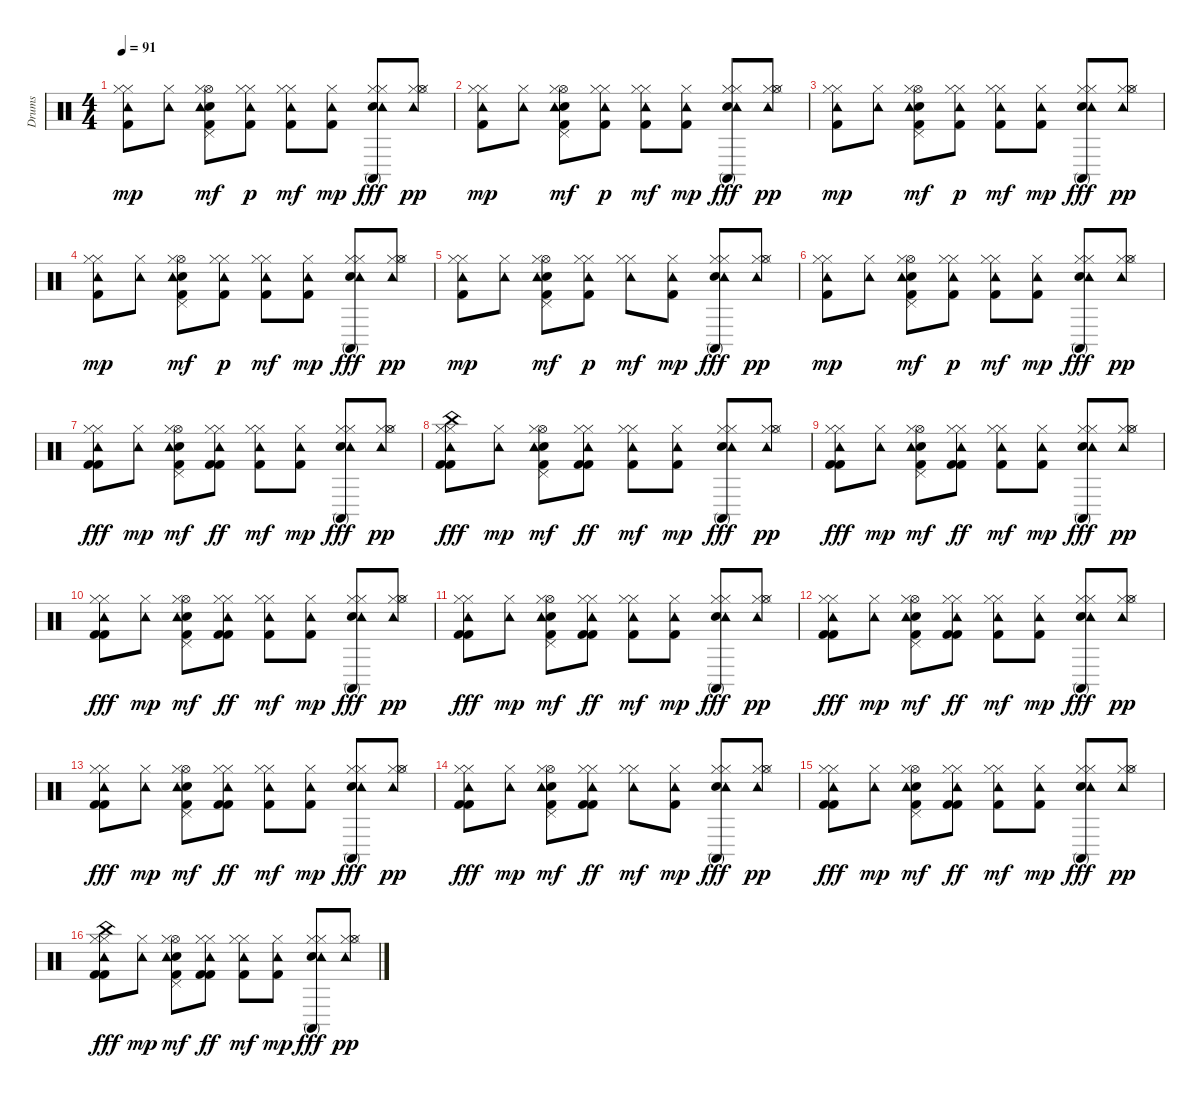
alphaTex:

\track ("Drums" "Drums") {instrument percussion}
\staff {score}
\articulation defaults
\ts (4 4)
\tempo 91
\clef neutral
\ks c
("Hi-Hat (closed)" "Kick (hit) 2" "Hi-Hat (closed)" "Tambourine (hit)").8{dy mp} ("Hi-Hat (closed)" "Tambourine (hit)").8 ("Kick (hit) 2" "Pedal Hi-Hat (hit)" "Hi-Hat (open)" "Snare (hit) 2" "Hi-Hat (closed)" "Tambourine (hit)").8{dy mf} ("Hi-Hat (closed)" "Kick (hit) 2" "Hi-Hat (closed)" "Tambourine (hit)").8{dy p} ("Hi-Hat (closed)" "Kick (hit) 2" "Hi-Hat (closed)" "Tambourine (hit)").8{dy mf} ("Kick (hit) 2" "Hi-Hat (closed)" "Tambourine (hit)").8{dy mp} ("Hi-Hat (closed)" "Snare (hit) 2" "Hi-Hat (closed)" "Tambourine (hit)" "Conga high (mute)").8{dy fff} ("Hi-Hat (closed)" "Hi-Hat (closed)" "Hi-Hat (open)" "Tambourine (hit)").8{dy pp} |
("Hi-Hat (closed)" "Kick (hit) 2" "Hi-Hat (closed)" "Tambourine (hit)").8{dy mp} ("Hi-Hat (closed)" "Tambourine (hit)").8 ("Kick (hit) 2" "Pedal Hi-Hat (hit)" "Hi-Hat (open)" "Snare (hit) 2" "Hi-Hat (closed)" "Tambourine (hit)").8{dy mf} ("Hi-Hat (closed)" "Kick (hit) 2" "Hi-Hat (closed)" "Tambourine (hit)").8{dy p} ("Hi-Hat (closed)" "Kick (hit) 2" "Hi-Hat (closed)" "Tambourine (hit)").8{dy mf} ("Kick (hit) 2" "Hi-Hat (closed)" "Tambourine (hit)").8{dy mp} ("Hi-Hat (closed)" "Snare (hit) 2" "Hi-Hat (closed)" "Tambourine (hit)" "Conga high (mute)").8{dy fff} ("Hi-Hat (closed)" "Hi-Hat (closed)" "Hi-Hat (open)" "Tambourine (hit)").8{dy pp} |
("Hi-Hat (closed)" "Kick (hit) 2" "Hi-Hat (closed)" "Tambourine (hit)").8{dy mp} ("Hi-Hat (closed)" "Tambourine (hit)").8 ("Kick (hit) 2" "Pedal Hi-Hat (hit)" "Hi-Hat (open)" "Snare (hit) 2" "Hi-Hat (closed)" "Tambourine (hit)").8{dy mf} ("Hi-Hat (closed)" "Kick (hit) 2" "Hi-Hat (closed)" "Tambourine (hit)").8{dy p} ("Hi-Hat (closed)" "Kick (hit) 2" "Hi-Hat (closed)" "Tambourine (hit)").8{dy mf} ("Kick (hit) 2" "Hi-Hat (closed)" "Tambourine (hit)").8{dy mp} ("Hi-Hat (closed)" "Snare (hit) 2" "Hi-Hat (closed)" "Tambourine (hit)" "Conga high (mute)").8{dy fff} ("Hi-Hat (closed)" "Hi-Hat (closed)" "Hi-Hat (open)" "Tambourine (hit)").8{dy pp} |
("Hi-Hat (closed)" "Kick (hit) 2" "Hi-Hat (closed)" "Tambourine (hit)").8{dy mp} ("Hi-Hat (closed)" "Tambourine (hit)").8 ("Kick (hit) 2" "Pedal Hi-Hat (hit)" "Hi-Hat (open)" "Snare (hit) 2" "Hi-Hat (closed)" "Tambourine (hit)").8{dy mf} ("Hi-Hat (closed)" "Kick (hit) 2" "Hi-Hat (closed)" "Tambourine (hit)").8{dy p} ("Hi-Hat (closed)" "Kick (hit) 2" "Hi-Hat (closed)" "Tambourine (hit)").8{dy mf} ("Kick (hit) 2" "Hi-Hat (closed)" "Tambourine (hit)").8{dy mp} ("Hi-Hat (closed)" "Snare (hit) 2" "Hi-Hat (closed)" "Tambourine (hit)" "Conga high (mute)").8{dy fff} ("Hi-Hat (closed)" "Hi-Hat (closed)" "Hi-Hat (open)" "Tambourine (hit)").8{dy pp} |
("Hi-Hat (closed)" "Kick (hit) 2" "Hi-Hat (closed)" "Tambourine (hit)").8{dy mp} ("Hi-Hat (closed)" "Tambourine (hit)").8 ("Kick (hit) 2" "Pedal Hi-Hat (hit)" "Hi-Hat (open)" "Snare (hit) 2" "Hi-Hat (closed)" "Tambourine (hit)").8{dy mf} ("Hi-Hat (closed)" "Kick (hit) 2" "Hi-Hat (closed)" "Tambourine (hit)").8{dy p} ("Hi-Hat (closed)" "Hi-Hat (closed)" "Tambourine (hit)").8{dy mf} ("Kick (hit) 2" "Hi-Hat (closed)" "Tambourine (hit)").8{dy mp} ("Hi-Hat (closed)" "Snare (hit) 2" "Hi-Hat (closed)" "Tambourine (hit)" "Conga high (mute)").8{dy fff} ("Hi-Hat (closed)" "Hi-Hat (closed)" "Hi-Hat (open)" "Tambourine (hit)").8{dy pp} |
("Hi-Hat (closed)" "Kick (hit) 2" "Hi-Hat (closed)" "Tambourine (hit)").8{dy mp} ("Hi-Hat (closed)" "Tambourine (hit)").8 ("Kick (hit) 2" "Pedal Hi-Hat (hit)" "Hi-Hat (open)" "Snare (hit) 2" "Hi-Hat (closed)" "Tambourine (hit)").8{dy mf} ("Hi-Hat (closed)" "Kick (hit) 2" "Hi-Hat (closed)" "Tambourine (hit)").8{dy p} ("Hi-Hat (closed)" "Kick (hit) 2" "Hi-Hat (closed)" "Tambourine (hit)").8{dy mf} ("Kick (hit) 2" "Hi-Hat (closed)" "Tambourine (hit)").8{dy mp} ("Hi-Hat (closed)" "Snare (hit) 2" "Hi-Hat (closed)" "Tambourine (hit)" "Conga high (mute)").8{dy fff} ("Hi-Hat (closed)" "Hi-Hat (closed)" "Hi-Hat (open)" "Tambourine (hit)").8{dy pp} |
("Hi-Hat (closed)" "Kick (hit) 2" "Hi-Hat (closed)" "Tambourine (hit)" "Kick (hit) 2").8{dy fff} ("Hi-Hat (closed)" "Tambourine (hit)").8{dy mp} ("Kick (hit) 2" "Pedal Hi-Hat (hit)" "Hi-Hat (open)" "Snare (hit) 2" "Hi-Hat (closed)" "Tambourine (hit)").8{dy mf} ("Hi-Hat (closed)" "Kick (hit) 2" "Hi-Hat (closed)" "Tambourine (hit)" "Kick (hit) 2").8{dy ff} ("Hi-Hat (closed)" "Kick (hit) 2" "Hi-Hat (closed)" "Tambourine (hit)").8{dy mf} ("Kick (hit) 2" "Hi-Hat (closed)" "Tambourine (hit)").8{dy mp} ("Hi-Hat (closed)" "Snare (hit) 2" "Hi-Hat (closed)" "Tambourine (hit)" "Conga high (mute)").8{dy fff} ("Hi-Hat (closed)" "Hi-Hat (closed)" "Hi-Hat (open)" "Tambourine (hit)").8{dy pp} |
("Hi-Hat (closed)" "Kick (hit) 2" "Hi-Hat (closed)" "China (hit)" "Tambourine (hit)" "Kick (hit) 2").8{dy fff} ("Hi-Hat (closed)" "Tambourine (hit)").8{dy mp} ("Kick (hit) 2" "Pedal Hi-Hat (hit)" "Hi-Hat (open)" "Snare (hit) 2" "Hi-Hat (closed)" "Tambourine (hit)").8{dy mf} ("Hi-Hat (closed)" "Kick (hit) 2" "Hi-Hat (closed)" "Tambourine (hit)" "Kick (hit) 2").8{dy ff} ("Hi-Hat (closed)" "Kick (hit) 2" "Hi-Hat (closed)" "Tambourine (hit)").8{dy mf} ("Kick (hit) 2" "Hi-Hat (closed)" "Tambourine (hit)").8{dy mp} ("Hi-Hat (closed)" "Snare (hit) 2" "Hi-Hat (closed)" "Tambourine (hit)" "Conga high (mute)").8{dy fff} ("Hi-Hat (closed)" "Hi-Hat (closed)" "Hi-Hat (open)" "Tambourine (hit)").8{dy pp} |
("Hi-Hat (closed)" "Kick (hit) 2" "Hi-Hat (closed)" "Tambourine (hit)" "Kick (hit) 2").8{dy fff} ("Hi-Hat (closed)" "Tambourine (hit)").8{dy mp} ("Kick (hit) 2" "Pedal Hi-Hat (hit)" "Hi-Hat (open)" "Snare (hit) 2" "Hi-Hat (closed)" "Tambourine (hit)").8{dy mf} ("Hi-Hat (closed)" "Kick (hit) 2" "Hi-Hat (closed)" "Tambourine (hit)" "Kick (hit) 2").8{dy ff} ("Hi-Hat (closed)" "Kick (hit) 2" "Hi-Hat (closed)" "Tambourine (hit)").8{dy mf} ("Kick (hit) 2" "Hi-Hat (closed)" "Tambourine (hit)").8{dy mp} ("Hi-Hat (closed)" "Snare (hit) 2" "Hi-Hat (closed)" "Tambourine (hit)" "Conga high (mute)").8{dy fff} ("Hi-Hat (closed)" "Hi-Hat (closed)" "Hi-Hat (open)" "Tambourine (hit)").8{dy pp} |
("Hi-Hat (closed)" "Kick (hit) 2" "Hi-Hat (closed)" "Tambourine (hit)" "Kick (hit) 2").8{dy fff} ("Hi-Hat (closed)" "Tambourine (hit)").8{dy mp} ("Kick (hit) 2" "Pedal Hi-Hat (hit)" "Hi-Hat (open)" "Snare (hit) 2" "Hi-Hat (closed)" "Tambourine (hit)").8{dy mf} ("Hi-Hat (closed)" "Kick (hit) 2" "Hi-Hat (closed)" "Tambourine (hit)" "Kick (hit) 2").8{dy ff} ("Hi-Hat (closed)" "Kick (hit) 2" "Hi-Hat (closed)" "Tambourine (hit)").8{dy mf} ("Kick (hit) 2" "Hi-Hat (closed)" "Tambourine (hit)").8{dy mp} ("Hi-Hat (closed)" "Snare (hit) 2" "Hi-Hat (closed)" "Tambourine (hit)" "Conga high (mute)").8{dy fff} ("Hi-Hat (closed)" "Hi-Hat (closed)" "Hi-Hat (open)" "Tambourine (hit)").8{dy pp} |
("Hi-Hat (closed)" "Kick (hit) 2" "Hi-Hat (closed)" "Tambourine (hit)" "Kick (hit) 2").8{dy fff} ("Hi-Hat (closed)" "Tambourine (hit)").8{dy mp} ("Kick (hit) 2" "Pedal Hi-Hat (hit)" "Hi-Hat (open)" "Snare (hit) 2" "Hi-Hat (closed)" "Tambourine (hit)").8{dy mf} ("Hi-Hat (closed)" "Kick (hit) 2" "Hi-Hat (closed)" "Tambourine (hit)" "Kick (hit) 2").8{dy ff} ("Hi-Hat (closed)" "Kick (hit) 2" "Hi-Hat (closed)" "Tambourine (hit)").8{dy mf} ("Kick (hit) 2" "Hi-Hat (closed)" "Tambourine (hit)").8{dy mp} ("Hi-Hat (closed)" "Snare (hit) 2" "Hi-Hat (closed)" "Tambourine (hit)" "Conga high (mute)").8{dy fff} ("Hi-Hat (closed)" "Hi-Hat (closed)" "Hi-Hat (open)" "Tambourine (hit)").8{dy pp} |
("Hi-Hat (closed)" "Kick (hit) 2" "Hi-Hat (closed)" "Tambourine (hit)" "Kick (hit) 2").8{dy fff} ("Hi-Hat (closed)" "Tambourine (hit)").8{dy mp} ("Kick (hit) 2" "Pedal Hi-Hat (hit)" "Hi-Hat (open)" "Snare (hit) 2" "Hi-Hat (closed)" "Tambourine (hit)").8{dy mf} ("Hi-Hat (closed)" "Kick (hit) 2" "Hi-Hat (closed)" "Tambourine (hit)" "Kick (hit) 2").8{dy ff} ("Hi-Hat (closed)" "Kick (hit) 2" "Hi-Hat (closed)" "Tambourine (hit)").8{dy mf} ("Kick (hit) 2" "Hi-Hat (closed)" "Tambourine (hit)").8{dy mp} ("Hi-Hat (closed)" "Snare (hit) 2" "Hi-Hat (closed)" "Tambourine (hit)" "Conga high (mute)").8{dy fff} ("Hi-Hat (closed)" "Hi-Hat (closed)" "Hi-Hat (open)" "Tambourine (hit)").8{dy pp} |
("Hi-Hat (closed)" "Kick (hit) 2" "Hi-Hat (closed)" "Tambourine (hit)" "Kick (hit) 2").8{dy fff} ("Hi-Hat (closed)" "Tambourine (hit)").8{dy mp} ("Kick (hit) 2" "Pedal Hi-Hat (hit)" "Hi-Hat (open)" "Snare (hit) 2" "Hi-Hat (closed)" "Tambourine (hit)").8{dy mf} ("Hi-Hat (closed)" "Kick (hit) 2" "Hi-Hat (closed)" "Tambourine (hit)" "Kick (hit) 2").8{dy ff} ("Hi-Hat (closed)" "Kick (hit) 2" "Hi-Hat (closed)" "Tambourine (hit)").8{dy mf} ("Kick (hit) 2" "Hi-Hat (closed)" "Tambourine (hit)").8{dy mp} ("Hi-Hat (closed)" "Snare (hit) 2" "Hi-Hat (closed)" "Tambourine (hit)" "Conga high (mute)").8{dy fff} ("Hi-Hat (closed)" "Hi-Hat (closed)" "Hi-Hat (open)" "Tambourine (hit)").8{dy pp} |
("Hi-Hat (closed)" "Kick (hit) 2" "Hi-Hat (closed)" "Tambourine (hit)" "Kick (hit) 2").8{dy fff} ("Hi-Hat (closed)" "Tambourine (hit)").8{dy mp} ("Kick (hit) 2" "Pedal Hi-Hat (hit)" "Hi-Hat (open)" "Snare (hit) 2" "Hi-Hat (closed)" "Tambourine (hit)").8{dy mf} ("Hi-Hat (closed)" "Kick (hit) 2" "Hi-Hat (closed)" "Tambourine (hit)" "Kick (hit) 2").8{dy ff} ("Hi-Hat (closed)" "Hi-Hat (closed)" "Tambourine (hit)").8{dy mf} ("Kick (hit) 2" "Hi-Hat (closed)" "Tambourine (hit)").8{dy mp} ("Hi-Hat (closed)" "Snare (hit) 2" "Hi-Hat (closed)" "Tambourine (hit)" "Conga high (mute)").8{dy fff} ("Hi-Hat (closed)" "Hi-Hat (closed)" "Hi-Hat (open)" "Tambourine (hit)").8{dy pp} |
("Hi-Hat (closed)" "Kick (hit) 2" "Hi-Hat (closed)" "Tambourine (hit)" "Kick (hit) 2").8{dy fff} ("Hi-Hat (closed)" "Tambourine (hit)").8{dy mp} ("Kick (hit) 2" "Pedal Hi-Hat (hit)" "Hi-Hat (open)" "Snare (hit) 2" "Hi-Hat (closed)" "Tambourine (hit)").8{dy mf} ("Hi-Hat (closed)" "Kick (hit) 2" "Hi-Hat (closed)" "Tambourine (hit)" "Kick (hit) 2").8{dy ff} ("Hi-Hat (closed)" "Kick (hit) 2" "Hi-Hat (closed)" "Tambourine (hit)").8{dy mf} ("Kick (hit) 2" "Hi-Hat (closed)" "Tambourine (hit)").8{dy mp} ("Hi-Hat (closed)" "Snare (hit) 2" "Hi-Hat (closed)" "Tambourine (hit)" "Conga high (mute)").8{dy fff} ("Hi-Hat (closed)" "Hi-Hat (closed)" "Hi-Hat (open)" "Tambourine (hit)").8{dy pp} |
("Hi-Hat (closed)" "Kick (hit) 2" "Hi-Hat (closed)" "China (hit)" "Tambourine (hit)" "Kick (hit) 2").8{dy fff} ("Hi-Hat (closed)" "Tambourine (hit)").8{dy mp} ("Kick (hit) 2" "Pedal Hi-Hat (hit)" "Hi-Hat (open)" "Snare (hit) 2" "Hi-Hat (closed)" "Tambourine (hit)").8{dy mf} ("Hi-Hat (closed)" "Kick (hit) 2" "Hi-Hat (closed)" "Tambourine (hit)" "Kick (hit) 2").8{dy ff} ("Hi-Hat (closed)" "Kick (hit) 2" "Hi-Hat (closed)" "Tambourine (hit)").8{dy mf} ("Kick (hit) 2" "Hi-Hat (closed)" "Tambourine (hit)").8{dy mp} ("Hi-Hat (closed)" "Snare (hit) 2" "Hi-Hat (closed)" "Tambourine (hit)" "Conga high (mute)").8{dy fff} ("Hi-Hat (closed)" "Hi-Hat (closed)" "Hi-Hat (open)" "Tambourine (hit)").8{dy pp}
